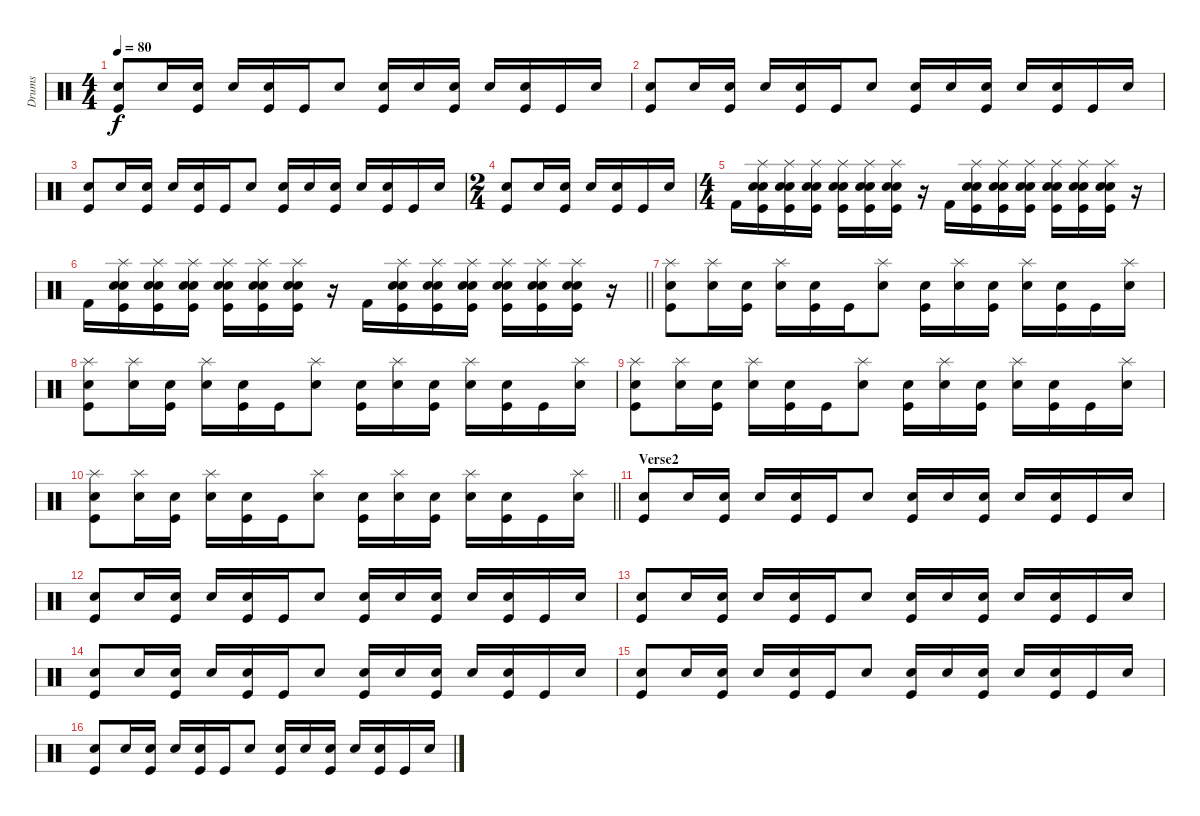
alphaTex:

\track ("Drums" "Drums") {instrument percussion}
\staff {score}
\articulation defaults
\ts (4 4)
\tempo 80
\clef neutral
\ks c
("Electric Snare (hit)" "Kick (hit)").8{dy f} "Snare (hit) 2".16 ("Electric Snare (hit)" "Kick (hit)").16 "Snare (hit) 2".16 ("Electric Snare (hit)" "Kick (hit)").16 "Kick (hit)".16 "Snare (hit) 2".8 ("Electric Snare (hit)" "Kick (hit)").16 "Snare (hit) 2".16 ("Electric Snare (hit)" "Kick (hit)").16 "Snare (hit) 2".16 ("Electric Snare (hit)" "Kick (hit)").16 "Kick (hit)".16 "Snare (hit) 2".16 |
("Electric Snare (hit)" "Kick (hit)").8 "Snare (hit) 2".16 ("Electric Snare (hit)" "Kick (hit)").16 "Snare (hit) 2".16 ("Electric Snare (hit)" "Kick (hit)").16 "Kick (hit)".16 "Snare (hit) 2".8 ("Electric Snare (hit)" "Kick (hit)").16 "Snare (hit) 2".16 ("Electric Snare (hit)" "Kick (hit)").16 "Snare (hit) 2".16 ("Electric Snare (hit)" "Kick (hit)").16 "Kick (hit)".16 "Snare (hit) 2".16 |
("Electric Snare (hit)" "Kick (hit)").8 "Snare (hit) 2".16 ("Electric Snare (hit)" "Kick (hit)").16 "Snare (hit) 2".16 ("Electric Snare (hit)" "Kick (hit)").16 "Kick (hit)".16 "Snare (hit) 2".8 ("Electric Snare (hit)" "Kick (hit)").16 "Snare (hit) 2".16 ("Electric Snare (hit)" "Kick (hit)").16 "Snare (hit) 2".16 ("Electric Snare (hit)" "Kick (hit)").16 "Kick (hit)".16 "Snare (hit) 2".16 |
\ts (2 4)
("Electric Snare (hit)" "Kick (hit)").8 "Snare (hit) 2".16 ("Electric Snare (hit)" "Kick (hit)").16 "Snare (hit) 2".16 ("Electric Snare (hit)" "Kick (hit)").16 "Kick (hit)".16 "Snare (hit) 2".16 |
\ts (4 4)
"Kick (hit) 2".16 ("Splash (hit)" "Snare (hit) 2" "Electric Snare (hit)" "Kick (hit)").16 ("Splash (hit)" "Snare (hit) 2" "Electric Snare (hit)" "Kick (hit)").16 ("Splash (hit)" "Snare (hit) 2" "Electric Snare (hit)" "Kick (hit)").16 ("Splash (hit)" "Snare (hit) 2" "Electric Snare (hit)" "Kick (hit)").16 ("Splash (hit)" "Snare (hit) 2" "Electric Snare (hit)" "Kick (hit)").16 ("Splash (hit)" "Snare (hit) 2" "Electric Snare (hit)" "Kick (hit)").16 r.16 "Kick (hit) 2".16 ("Splash (hit)" "Snare (hit) 2" "Electric Snare (hit)" "Kick (hit)").16 ("Splash (hit)" "Snare (hit) 2" "Electric Snare (hit)" "Kick (hit)").16 ("Splash (hit)" "Snare (hit) 2" "Electric Snare (hit)" "Kick (hit)").16 ("Splash (hit)" "Snare (hit) 2" "Electric Snare (hit)" "Kick (hit)").16 ("Splash (hit)" "Snare (hit) 2" "Electric Snare (hit)" "Kick (hit)").16 ("Splash (hit)" "Snare (hit) 2" "Electric Snare (hit)" "Kick (hit)").16 r.16 |
\barLineRight lightlight "Kick (hit) 2".16
("Splash (hit)" "Snare (hit) 2" "Electric Snare (hit)" "Kick (hit)").16 ("Splash (hit)" "Snare (hit) 2" "Electric Snare (hit)" "Kick (hit)").16 ("Splash (hit)" "Snare (hit) 2" "Electric Snare (hit)" "Kick (hit)").16 ("Splash (hit)" "Snare (hit) 2" "Electric Snare (hit)" "Kick (hit)").16 ("Splash (hit)" "Snare (hit) 2" "Electric Snare (hit)" "Kick (hit)").16 ("Splash (hit)" "Snare (hit) 2" "Electric Snare (hit)" "Kick (hit)").16 r.16 "Kick (hit) 2".16 ("Splash (hit)" "Snare (hit) 2" "Electric Snare (hit)" "Kick (hit)").16 ("Splash (hit)" "Snare (hit) 2" "Electric Snare (hit)" "Kick (hit)").16 ("Splash (hit)" "Snare (hit) 2" "Electric Snare (hit)" "Kick (hit)").16 ("Splash (hit)" "Snare (hit) 2" "Electric Snare (hit)" "Kick (hit)").16 ("Splash (hit)" "Snare (hit) 2" "Electric Snare (hit)" "Kick (hit)").16 ("Splash (hit)" "Snare (hit) 2" "Electric Snare (hit)" "Kick (hit)").16 r.16 |
("Splash (hit)" "Electric Snare (hit)" "Kick (hit)").8 ("Splash (hit)" "Snare (hit) 2").16 ("Electric Snare (hit)" "Kick (hit)").16 ("Splash (hit)" "Snare (hit) 2").16 ("Electric Snare (hit)" "Kick (hit)").16 "Kick (hit)".16 ("Splash (hit)" "Snare (hit) 2").8 ("Electric Snare (hit)" "Kick (hit)").16 ("Splash (hit)" "Snare (hit) 2").16 ("Electric Snare (hit)" "Kick (hit)").16 ("Splash (hit)" "Snare (hit) 2").16 ("Electric Snare (hit)" "Kick (hit)").16 "Kick (hit)".16 ("Splash (hit)" "Snare (hit) 2").16 |
("Splash (hit)" "Electric Snare (hit)" "Kick (hit)").8 ("Splash (hit)" "Snare (hit) 2").16 ("Electric Snare (hit)" "Kick (hit)").16 ("Splash (hit)" "Snare (hit) 2").16 ("Electric Snare (hit)" "Kick (hit)").16 "Kick (hit)".16 ("Splash (hit)" "Snare (hit) 2").8 ("Electric Snare (hit)" "Kick (hit)").16 ("Splash (hit)" "Snare (hit) 2").16 ("Electric Snare (hit)" "Kick (hit)").16 ("Splash (hit)" "Snare (hit) 2").16 ("Electric Snare (hit)" "Kick (hit)").16 "Kick (hit)".16 ("Splash (hit)" "Snare (hit) 2").16 |
("Splash (hit)" "Electric Snare (hit)" "Kick (hit)").8 ("Splash (hit)" "Snare (hit) 2").16 ("Electric Snare (hit)" "Kick (hit)").16 ("Splash (hit)" "Snare (hit) 2").16 ("Electric Snare (hit)" "Kick (hit)").16 "Kick (hit)".16 ("Splash (hit)" "Snare (hit) 2").8 ("Electric Snare (hit)" "Kick (hit)").16 ("Splash (hit)" "Snare (hit) 2").16 ("Electric Snare (hit)" "Kick (hit)").16 ("Splash (hit)" "Snare (hit) 2").16 ("Electric Snare (hit)" "Kick (hit)").16 "Kick (hit)".16 ("Splash (hit)" "Snare (hit) 2").16 |
\barLineRight lightlight
("Splash (hit)" "Electric Snare (hit)" "Kick (hit)").8 ("Splash (hit)" "Snare (hit) 2").16 ("Electric Snare (hit)" "Kick (hit)").16 ("Splash (hit)" "Snare (hit) 2").16 ("Electric Snare (hit)" "Kick (hit)").16 "Kick (hit)".16 ("Splash (hit)" "Snare (hit) 2").8 ("Electric Snare (hit)" "Kick (hit)").16 ("Splash (hit)" "Snare (hit) 2").16 ("Electric Snare (hit)" "Kick (hit)").16 ("Splash (hit)" "Snare (hit) 2").16 ("Electric Snare (hit)" "Kick (hit)").16 "Kick (hit)".16 ("Splash (hit)" "Snare (hit) 2").16 |
\section ("" "Verse2")
("Electric Snare (hit)" "Kick (hit)").8 "Snare (hit) 2".16 ("Electric Snare (hit)" "Kick (hit)").16 "Snare (hit) 2".16 ("Electric Snare (hit)" "Kick (hit)").16 "Kick (hit)".16 "Snare (hit) 2".8 ("Electric Snare (hit)" "Kick (hit)").16 "Snare (hit) 2".16 ("Electric Snare (hit)" "Kick (hit)").16 "Snare (hit) 2".16 ("Electric Snare (hit)" "Kick (hit)").16 "Kick (hit)".16 "Snare (hit) 2".16 |
("Electric Snare (hit)" "Kick (hit)").8 "Snare (hit) 2".16 ("Electric Snare (hit)" "Kick (hit)").16 "Snare (hit) 2".16 ("Electric Snare (hit)" "Kick (hit)").16 "Kick (hit)".16 "Snare (hit) 2".8 ("Electric Snare (hit)" "Kick (hit)").16 "Snare (hit) 2".16 ("Electric Snare (hit)" "Kick (hit)").16 "Snare (hit) 2".16 ("Electric Snare (hit)" "Kick (hit)").16 "Kick (hit)".16 "Snare (hit) 2".16 |
("Electric Snare (hit)" "Kick (hit)").8 "Snare (hit) 2".16 ("Electric Snare (hit)" "Kick (hit)").16 "Snare (hit) 2".16 ("Electric Snare (hit)" "Kick (hit)").16 "Kick (hit)".16 "Snare (hit) 2".8 ("Electric Snare (hit)" "Kick (hit)").16 "Snare (hit) 2".16 ("Electric Snare (hit)" "Kick (hit)").16 "Snare (hit) 2".16 ("Electric Snare (hit)" "Kick (hit)").16 "Kick (hit)".16 "Snare (hit) 2".16 |
("Electric Snare (hit)" "Kick (hit)").8 "Snare (hit) 2".16 ("Electric Snare (hit)" "Kick (hit)").16 "Snare (hit) 2".16 ("Electric Snare (hit)" "Kick (hit)").16 "Kick (hit)".16 "Snare (hit) 2".8 ("Electric Snare (hit)" "Kick (hit)").16 "Snare (hit) 2".16 ("Electric Snare (hit)" "Kick (hit)").16 "Snare (hit) 2".16 ("Electric Snare (hit)" "Kick (hit)").16 "Kick (hit)".16 "Snare (hit) 2".16 |
("Electric Snare (hit)" "Kick (hit)").8 "Snare (hit) 2".16 ("Electric Snare (hit)" "Kick (hit)").16 "Snare (hit) 2".16 ("Electric Snare (hit)" "Kick (hit)").16 "Kick (hit)".16 "Snare (hit) 2".8 ("Electric Snare (hit)" "Kick (hit)").16 "Snare (hit) 2".16 ("Electric Snare (hit)" "Kick (hit)").16 "Snare (hit) 2".16 ("Electric Snare (hit)" "Kick (hit)").16 "Kick (hit)".16 "Snare (hit) 2".16 |
("Electric Snare (hit)" "Kick (hit)").8 "Snare (hit) 2".16 ("Electric Snare (hit)" "Kick (hit)").16 "Snare (hit) 2".16 ("Electric Snare (hit)" "Kick (hit)").16 "Kick (hit)".16 "Snare (hit) 2".8 ("Electric Snare (hit)" "Kick (hit)").16 "Snare (hit) 2".16 ("Electric Snare (hit)" "Kick (hit)").16 "Snare (hit) 2".16 ("Electric Snare (hit)" "Kick (hit)").16 "Kick (hit)".16 "Snare (hit) 2".16
